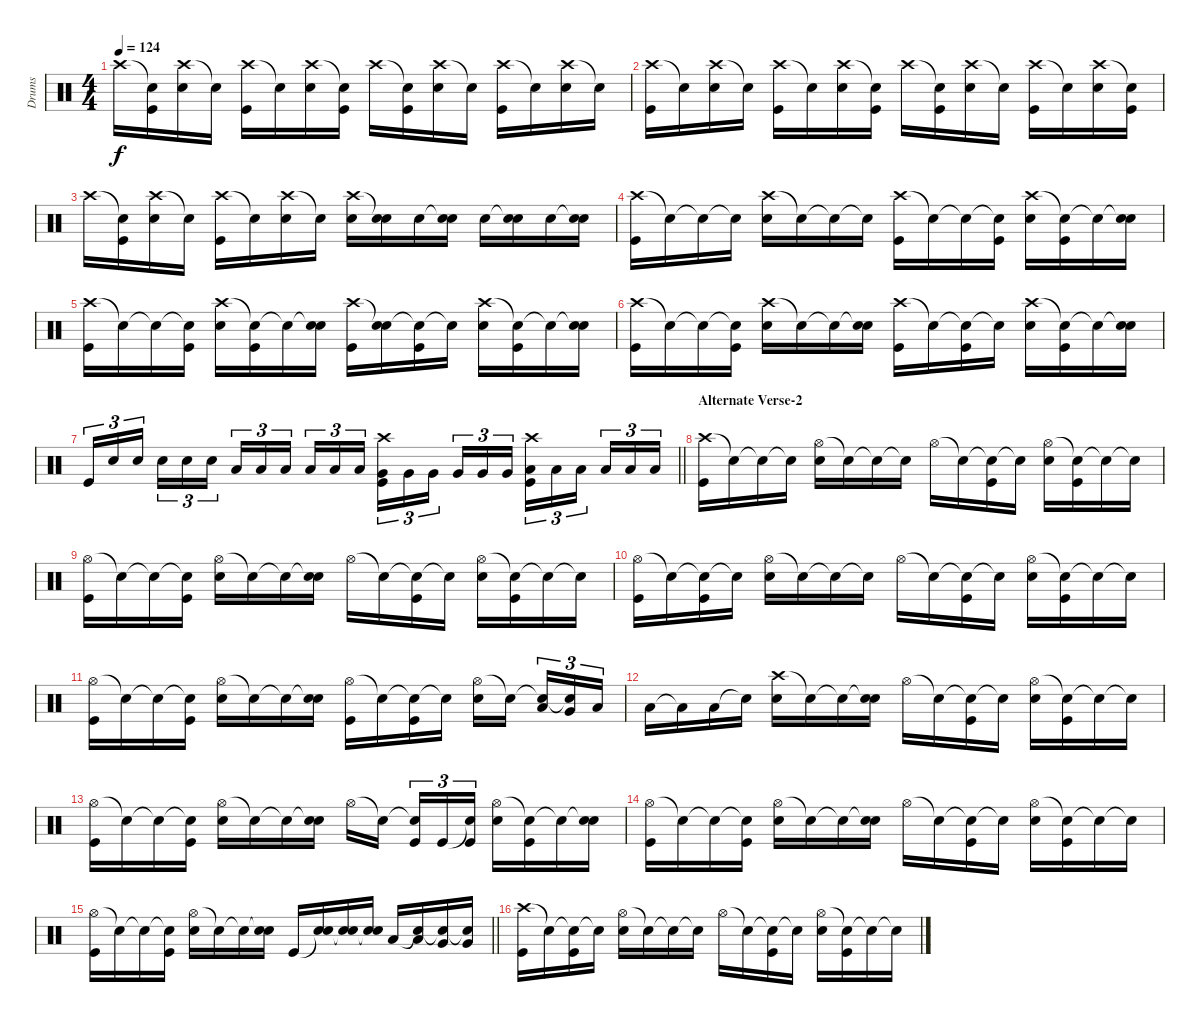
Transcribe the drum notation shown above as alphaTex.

\track ("Drums" "Drums") {instrument percussion}
\staff {score}
\articulation defaults
\ts (4 4)
\tempo 124
\clef neutral
\ks c "Crash high (hit)".16{dy f}
("Snare (hit)"{t} "Kick (hit)").16 ("Crash high (hit)" "Electric Snare (hit)").16 "Snare (hit)"{t}.16 ("Crash high (hit)" "Kick (hit)").16 "Snare (hit)"{t}.16 ("Crash high (hit)" "Electric Snare (hit)").16 ("Snare (hit)"{t} "Kick (hit)").16 "Crash high (hit)".16 ("Snare (hit)"{t} "Kick (hit)").16 ("Crash high (hit)" "Electric Snare (hit)").16 "Snare (hit)"{t}.16 ("Crash high (hit)" "Kick (hit)").16 "Snare (hit)"{t}.16 ("Crash high (hit)" "Electric Snare (hit)").16 "Snare (hit)"{t}.16 |
("Crash high (hit)" "Kick (hit)").16 "Snare (hit)"{t}.16 ("Crash high (hit)" "Electric Snare (hit)").16 "Snare (hit)"{t}.16 ("Crash high (hit)" "Kick (hit)").16 "Snare (hit)"{t}.16 ("Crash high (hit)" "Electric Snare (hit)").16 ("Snare (hit)"{t} "Kick (hit)").16 "Crash high (hit)".16 ("Snare (hit)"{t} "Kick (hit)").16 ("Crash high (hit)" "Electric Snare (hit)").16 "Snare (hit)"{t}.16 ("Crash high (hit)" "Kick (hit)").16 "Snare (hit)"{t}.16 ("Crash high (hit)" "Electric Snare (hit)").16 ("Snare (hit)"{t} "Kick (hit)").16 |
"Crash high (hit)".16 ("Snare (hit)"{t} "Kick (hit)").16 ("Crash high (hit)" "Electric Snare (hit)").16 "Snare (hit)"{t}.16 ("Crash high (hit)" "Kick (hit)").16 "Snare (hit)"{t}.16 ("Crash high (hit)" "Electric Snare (hit)").16 "Snare (hit)"{t}.16 ("Crash high (hit)" "Electric Snare (hit)").16 ("Snare (hit)"{t} "Electric Snare (hit)").16 "Electric Snare (hit)".16 ("Snare (hit)"{t} "Electric Snare (hit)").16 "Electric Snare (hit)".16 ("Snare (hit)"{t} "Electric Snare (hit)").16 "Electric Snare (hit)".16 ("Snare (hit)"{t} "Electric Snare (hit)").16 |
("Crash high (hit)" "Kick (hit)").16 "Snare (hit)"{t}.16 "Snare (hit)"{t}.16 "Snare (hit)"{t}.16 ("Crash high (hit)" "Electric Snare (hit)").16 "Snare (hit)"{t}.16 "Snare (hit)"{t}.16 "Snare (hit)"{t}.16 ("Crash high (hit)" "Kick (hit)").16 "Snare (hit)"{t}.16 "Snare (hit)"{t}.16 ("Snare (hit)"{t} "Kick (hit)").16 ("Crash high (hit)" "Electric Snare (hit)").16 ("Snare (hit)"{t} "Kick (hit)").16 "Snare (hit)"{t}.16 ("Snare (hit)"{t} "Electric Snare (hit)").16 |
("Crash high (hit)" "Kick (hit)").16 "Snare (hit)"{t}.16 "Snare (hit)"{t}.16 ("Snare (hit)"{t} "Kick (hit)").16 ("Crash high (hit)" "Electric Snare (hit)").16 ("Snare (hit)"{t} "Kick (hit)").16 "Snare (hit)"{t}.16 ("Snare (hit)"{t} "Electric Snare (hit)").16 ("Crash high (hit)" "Kick (hit)").16 ("Snare (hit)"{t} "Electric Snare (hit)").16 ("Snare (hit)"{t} "Kick (hit)").16 "Snare (hit)"{t}.16 ("Crash high (hit)" "Electric Snare (hit)").16 ("Snare (hit)"{t} "Kick (hit)").16 "Snare (hit)"{t}.16 ("Snare (hit)"{t} "Electric Snare (hit)").16 |
("Crash high (hit)" "Kick (hit)").16 "Snare (hit)"{t}.16 "Snare (hit)"{t}.16 ("Snare (hit)"{t} "Kick (hit)").16 ("Crash high (hit)" "Electric Snare (hit)").16 "Snare (hit)"{t}.16 "Snare (hit)"{t}.16 ("Snare (hit)"{t} "Electric Snare (hit)").16 ("Crash high (hit)" "Kick (hit)").16 "Snare (hit)"{t}.16 ("Snare (hit)"{t} "Kick (hit)").16 "Snare (hit)"{t}.16 ("Crash high (hit)" "Electric Snare (hit)").16 ("Snare (hit)"{t} "Kick (hit)").16 "Snare (hit)"{t}.16 ("Snare (hit)"{t} "Electric Snare (hit)").16 |
\barLineRight lightlight "Kick (hit)".16{tu (3 2)} "Electric Snare (hit)".16{tu (3 2)} "Electric Snare (hit)".16{tu (3 2)} "Electric Snare (hit)".16{tu (3 2)} "Electric Snare (hit)".16{tu (3 2)} "Electric Snare (hit)".16{tu (3 2)} "Low Tom (hit)".16{tu (3 2)} "Low Tom (hit)".16{tu (3 2)} "Low Tom (hit)".16{tu (3 2)} "Low Tom (hit)".16{tu (3 2)} "Low Tom (hit)".16{tu (3 2)} "Low Tom (hit)".16{tu (3 2)}
("Crash high (hit)" "Very Low Tom (hit)" "Kick (hit)").16{tu (3 2)} "Very Low Tom (hit)".16{tu (3 2)} "Very Low Tom (hit)".16{tu (3 2)} "Very Low Tom (hit)".16{tu (3 2)} "Very Low Tom (hit)".16{tu (3 2)} "Very Low Tom (hit)".16{tu (3 2)} ("Crash high (hit)" "Low Floor Tom (hit)" "Kick (hit)").16{tu (3 2)} "Low Floor Tom (hit)".16{tu (3 2)} "Low Floor Tom (hit)".16{tu (3 2)} "Low Floor Tom (hit)".16{tu (3 2)} "Low Floor Tom (hit)".16{tu (3 2)} "Low Floor Tom (hit)".16{tu (3 2)} |
\section ("" "Alternate Verse-2")
("Crash high (hit)" "Kick (hit)").16 "Snare (hit)"{t}.16 "Snare (hit)"{t}.16 "Snare (hit)"{t}.16 ("Hi-Hat (open)" "Electric Snare (hit)").16 "Snare (hit)"{t}.16 "Snare (hit)"{t}.16 "Snare (hit)"{t}.16 "Hi-Hat (open)".16 "Snare (hit)"{t}.16 ("Snare (hit)"{t} "Kick (hit)").16 "Snare (hit)"{t}.16 ("Hi-Hat (open)" "Electric Snare (hit)").16 ("Snare (hit)"{t} "Kick (hit)").16 "Snare (hit)"{t}.16 "Snare (hit)"{t}.16 |
("Hi-Hat (open)" "Kick (hit)").16 "Snare (hit)"{t}.16 "Snare (hit)"{t}.16 ("Snare (hit)"{t} "Kick (hit)").16 ("Hi-Hat (open)" "Electric Snare (hit)").16 "Snare (hit)"{t}.16 "Snare (hit)"{t}.16 ("Snare (hit)"{t} "Electric Snare (hit)").16 "Hi-Hat (open)".16 "Snare (hit)"{t}.16 ("Snare (hit)"{t} "Kick (hit)").16 "Snare (hit)"{t}.16 ("Hi-Hat (open)" "Electric Snare (hit)").16 ("Snare (hit)"{t} "Kick (hit)").16 "Snare (hit)"{t}.16 "Snare (hit)"{t}.16 |
("Hi-Hat (open)" "Kick (hit)").16 "Snare (hit)"{t}.16 ("Snare (hit)"{t} "Kick (hit)").16 "Snare (hit)"{t}.16 ("Hi-Hat (open)" "Electric Snare (hit)").16 "Snare (hit)"{t}.16 "Snare (hit)"{t}.16 "Snare (hit)"{t}.16 "Hi-Hat (open)".16 "Snare (hit)"{t}.16 ("Snare (hit)"{t} "Kick (hit)").16 "Snare (hit)"{t}.16 ("Hi-Hat (open)" "Electric Snare (hit)").16 ("Snare (hit)"{t} "Kick (hit)").16 "Snare (hit)"{t}.16 "Snare (hit)"{t}.16 |
("Hi-Hat (open)" "Kick (hit)").16 "Snare (hit)"{t}.16 "Snare (hit)"{t}.16 ("Snare (hit)"{t} "Kick (hit)").16 ("Hi-Hat (open)" "Electric Snare (hit)").16 "Snare (hit)"{t}.16 "Snare (hit)"{t}.16 ("Snare (hit)"{t} "Electric Snare (hit)").16 ("Hi-Hat (open)" "Kick (hit)").16 "Snare (hit)"{t}.16 ("Snare (hit)"{t} "Kick (hit)").16 "Snare (hit)"{t}.16 ("Hi-Hat (open)" "Electric Snare (hit)").16 "Snare (hit)"{t}.16 ("Snare (hit)"{t} "Low Floor Tom (hit)").16{tu (3 2)} ("Snare (hit)"{t} "Very Low Tom (hit)").16{tu (3 2)} "Low Floor Tom (hit)".16{tu (3 2)} |
"Low Floor Tom (hit)".16 "Low Floor Tom (hit)"{t}.16 "Low Floor Tom (hit)".16 "Snare (hit)"{t}.16 ("Crash high (hit)" "Electric Snare (hit)").16 "Snare (hit)"{t}.16 "Snare (hit)"{t}.16 ("Snare (hit)"{t} "Electric Snare (hit)").16 "Hi-Hat (open)".16 "Snare (hit)"{t}.16 ("Snare (hit)"{t} "Kick (hit)").16 "Snare (hit)"{t}.16 ("Hi-Hat (open)" "Electric Snare (hit)").16 ("Snare (hit)"{t} "Kick (hit)").16 "Snare (hit)"{t}.16 "Snare (hit)"{t}.16 |
("Hi-Hat (open)" "Kick (hit)").16 "Snare (hit)"{t}.16 "Snare (hit)"{t}.16 ("Snare (hit)"{t} "Kick (hit)").16 ("Hi-Hat (open)" "Electric Snare (hit)").16 "Snare (hit)"{t}.16 "Snare (hit)"{t}.16 ("Snare (hit)"{t} "Electric Snare (hit)").16 "Hi-Hat (open)".16 "Snare (hit)"{t}.16 ("Snare (hit)"{t} "Kick (hit)").16{tu (3 2)} "Kick (hit)".16{tu (3 2)} ("Snare (hit)"{t} "Kick (hit)").16{tu (3 2)} ("Hi-Hat (open)" "Electric Snare (hit)").16 ("Snare (hit)"{t} "Kick (hit)").16 "Snare (hit)"{t}.16 ("Snare (hit)"{t} "Electric Snare (hit)").16 |
("Hi-Hat (open)" "Kick (hit)").16 "Snare (hit)"{t}.16 "Snare (hit)"{t}.16 ("Snare (hit)"{t} "Kick (hit)").16 ("Hi-Hat (open)" "Electric Snare (hit)").16 "Snare (hit)"{t}.16 "Snare (hit)"{t}.16 ("Snare (hit)"{t} "Electric Snare (hit)").16 "Hi-Hat (open)".16 "Snare (hit)"{t}.16 ("Snare (hit)"{t} "Kick (hit)").16 "Snare (hit)"{t}.16 ("Hi-Hat (open)" "Electric Snare (hit)").16 ("Snare (hit)"{t} "Kick (hit)").16 "Snare (hit)"{t}.16 "Snare (hit)"{t}.16 |
\barLineRight lightlight
("Hi-Hat (open)" "Kick (hit)").16 "Snare (hit)"{t}.16 "Snare (hit)"{t}.16 ("Snare (hit)"{t} "Kick (hit)").16 ("Hi-Hat (open)" "Electric Snare (hit)").16 "Snare (hit)"{t}.16 "Snare (hit)"{t}.16 ("Snare (hit)"{t} "Electric Snare (hit)").16 "Kick (hit)".16 ("Snare (hit)"{t} "Electric Snare (hit)").16 ("Snare (hit)"{t} "Electric Snare (hit)").16 ("Snare (hit)"{t} "Electric Snare (hit)").16 "Low Tom (hit)".16 ("Snare (hit)"{t} "Low Tom (hit)").16 ("Snare (hit)"{t} "Very Low Tom (hit)").16 ("Snare (hit)"{t} "Very Low Tom (hit)").16 |
("Crash high (hit)" "Kick (hit)").16 "Snare (hit)"{t}.16 ("Snare (hit)"{t} "Kick (hit)").16 "Snare (hit)"{t}.16 ("Hi-Hat (open)" "Electric Snare (hit)").16 "Snare (hit)"{t}.16 "Snare (hit)"{t}.16 "Snare (hit)"{t}.16 "Hi-Hat (open)".16 "Snare (hit)"{t}.16 ("Snare (hit)"{t} "Kick (hit)").16 "Snare (hit)"{t}.16 ("Hi-Hat (open)" "Electric Snare (hit)").16 ("Snare (hit)"{t} "Kick (hit)").16 "Snare (hit)"{t}.16 "Snare (hit)"{t}.16
